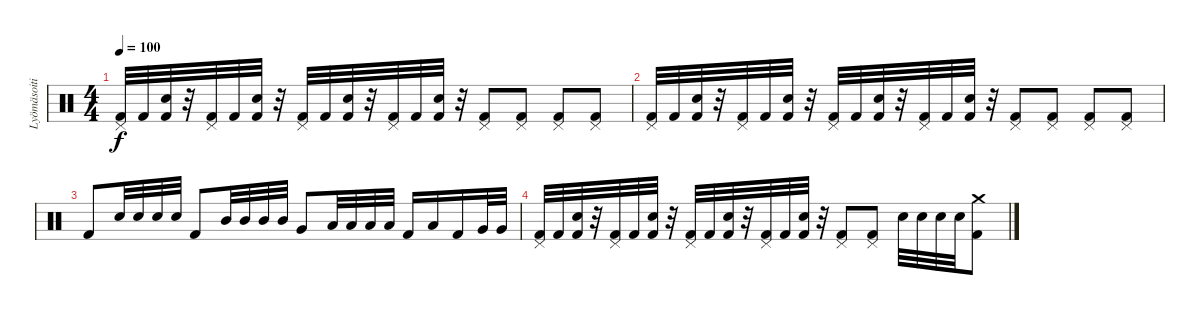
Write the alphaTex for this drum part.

\track ("Lyömäsoitin" "Lyömäsoiti") {instrument percussion}
\staff {score}
\articulation defaults
\ts (4 4)
\tempo 100
\clef neutral
\ks c
("Kick (hit) 2" "Pedal Hi-Hat (hit)").32{dy f} "Kick (hit) 2".32 ("Kick (hit) 2" "Electric Snare (hit)").32 r.32 ("Kick (hit) 2" "Pedal Hi-Hat (hit)").32 "Kick (hit) 2".32 ("Kick (hit) 2" "Electric Snare (hit)").32 r.32 ("Kick (hit) 2" "Pedal Hi-Hat (hit)").32 "Kick (hit) 2".32 ("Kick (hit) 2" "Electric Snare (hit)").32 r.32 ("Kick (hit) 2" "Pedal Hi-Hat (hit)").32 "Kick (hit) 2".32 ("Kick (hit) 2" "Electric Snare (hit)").32 r.32 ("Kick (hit) 2" "Pedal Hi-Hat (hit)").8 ("Kick (hit) 2" "Pedal Hi-Hat (hit)").8 ("Kick (hit) 2" "Pedal Hi-Hat (hit)").8 ("Kick (hit) 2" "Pedal Hi-Hat (hit)").8 |
("Kick (hit) 2" "Pedal Hi-Hat (hit)").32 "Kick (hit) 2".32 ("Kick (hit) 2" "Electric Snare (hit)").32 r.32 ("Kick (hit) 2" "Pedal Hi-Hat (hit)").32 "Kick (hit) 2".32 ("Kick (hit) 2" "Electric Snare (hit)").32 r.32 ("Kick (hit) 2" "Pedal Hi-Hat (hit)").32 "Kick (hit) 2".32 ("Kick (hit) 2" "Electric Snare (hit)").32 r.32 ("Kick (hit) 2" "Pedal Hi-Hat (hit)").32 "Kick (hit) 2".32 ("Kick (hit) 2" "Electric Snare (hit)").32 r.32 ("Kick (hit) 2" "Pedal Hi-Hat (hit)").8 ("Kick (hit) 2" "Pedal Hi-Hat (hit)").8 ("Kick (hit) 2" "Pedal Hi-Hat (hit)").8 ("Kick (hit) 2" "Pedal Hi-Hat (hit)").8 |
"Kick (hit) 2".8 "Electric Snare (hit)".32 "Electric Snare (hit)".32 "Electric Snare (hit)".32 "Electric Snare (hit)".32 "Kick (hit) 2".8 "Mid Tom (hit)".32 "Mid Tom (hit)".32 "Mid Tom (hit)".32 "Mid Tom (hit)".32 "Very Low Tom (hit)".8 "Low Tom (hit)".32 "Low Tom (hit)".32 "Low Tom (hit)".32 "Low Tom (hit)".32 "Kick (hit) 2".16 "Low Tom (hit)".16 "Kick (hit) 2".16 "Very Low Tom (hit)".32 "Very Low Tom (hit)".32 |
("Kick (hit) 2" "Pedal Hi-Hat (hit)").32 "Kick (hit) 2".32 ("Kick (hit) 2" "Electric Snare (hit)").32 r.32 ("Kick (hit) 2" "Pedal Hi-Hat (hit)").32 "Kick (hit) 2".32 ("Kick (hit) 2" "Electric Snare (hit)").32 r.32 ("Kick (hit) 2" "Pedal Hi-Hat (hit)").32 "Kick (hit) 2".32 ("Kick (hit) 2" "Electric Snare (hit)").32 r.32 ("Kick (hit) 2" "Pedal Hi-Hat (hit)").32 "Kick (hit) 2".32 ("Kick (hit) 2" "Electric Snare (hit)").32 r.32 ("Kick (hit) 2" "Pedal Hi-Hat (hit)").8 ("Kick (hit) 2" "Pedal Hi-Hat (hit)").8 "Electric Snare (hit)".32 "Electric Snare (hit)".32 "Electric Snare (hit)".32 "Electric Snare (hit)".32 ("Kick (hit) 2" "Crash medium (hit)").8
